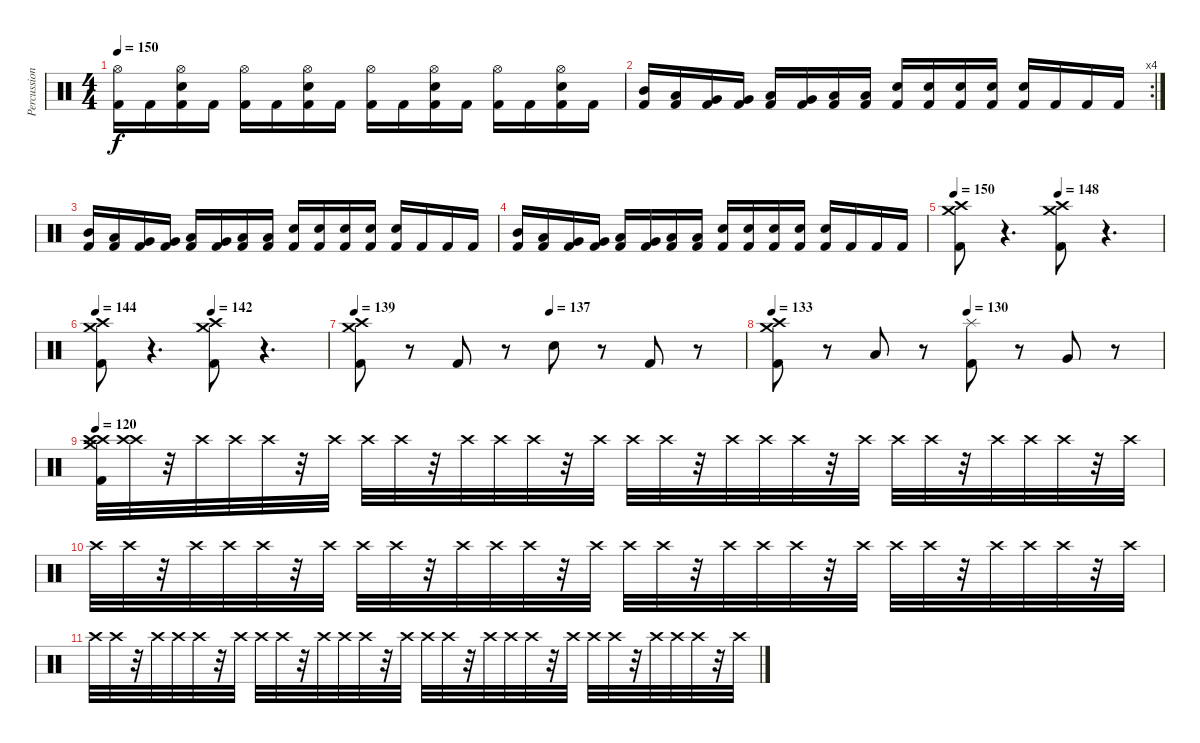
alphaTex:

\track ("Percussion" "Percussion") {instrument percussion}
\staff {score}
\articulation defaults
\ts (4 4)
\tempo 150
\clef neutral
\ks c
("Kick (hit) 2" "Hi-Hat (open)").16{dy f} "Kick (hit) 2".16 ("Kick (hit) 2" "Electric Snare (hit)" "Hi-Hat (open)").16 "Kick (hit) 2".16 ("Kick (hit) 2" "Hi-Hat (open)").16 "Kick (hit) 2".16 ("Kick (hit) 2" "Electric Snare (hit)" "Hi-Hat (open)").16 "Kick (hit) 2".16 ("Kick (hit) 2" "Hi-Hat (open)").16 "Kick (hit) 2".16 ("Kick (hit) 2" "Electric Snare (hit)" "Hi-Hat (open)").16 "Kick (hit) 2".16 ("Kick (hit) 2" "Hi-Hat (open)").16 "Kick (hit) 2".16 ("Kick (hit) 2" "Electric Snare (hit)" "Hi-Hat (open)").16 "Kick (hit) 2".16 |
\rc 4
("Kick (hit) 2" "Mid Tom (hit)").16 ("Kick (hit) 2" "Low Tom (hit)").16 ("Kick (hit) 2" "Very Low Tom (hit)").16 ("Kick (hit) 2" "Very Low Tom (hit)").16 ("Kick (hit) 2" "Low Tom (hit)").16 ("Kick (hit) 2" "Very Low Tom (hit)").16 ("Kick (hit) 2" "Low Floor Tom (hit)").16 ("Kick (hit) 2" "Low Floor Tom (hit)").16 ("Kick (hit) 2" "Electric Snare (hit)").16 ("Kick (hit) 2" "Electric Snare (hit)").16 ("Kick (hit) 2" "Electric Snare (hit)").16 ("Kick (hit) 2" "Electric Snare (hit)").16 ("Kick (hit) 2" "Electric Snare (hit)").16 "Kick (hit) 2".16 "Kick (hit) 2".16 "Kick (hit) 2".16 |
("Kick (hit) 2" "Mid Tom (hit)").16 ("Kick (hit) 2" "Low Tom (hit)").16 ("Kick (hit) 2" "Very Low Tom (hit)").16 ("Kick (hit) 2" "Very Low Tom (hit)").16 ("Kick (hit) 2" "Low Tom (hit)").16 ("Kick (hit) 2" "Very Low Tom (hit)").16 ("Kick (hit) 2" "Low Floor Tom (hit)").16 ("Kick (hit) 2" "Low Floor Tom (hit)").16 ("Kick (hit) 2" "Electric Snare (hit)").16 ("Kick (hit) 2" "Electric Snare (hit)").16 ("Kick (hit) 2" "Electric Snare (hit)").16 ("Kick (hit) 2" "Electric Snare (hit)").16 ("Kick (hit) 2" "Electric Snare (hit)").16 "Kick (hit) 2".16 "Kick (hit) 2".16 "Kick (hit) 2".16 |
("Kick (hit) 2" "Mid Tom (hit)").16 ("Kick (hit) 2" "Low Tom (hit)").16 ("Kick (hit) 2" "Very Low Tom (hit)").16 ("Kick (hit) 2" "Very Low Tom (hit)").16 ("Kick (hit) 2" "Low Tom (hit)").16 ("Kick (hit) 2" "Very Low Tom (hit)").16 ("Kick (hit) 2" "Low Floor Tom (hit)").16 ("Kick (hit) 2" "Low Floor Tom (hit)").16 ("Kick (hit) 2" "Electric Snare (hit)").16 ("Kick (hit) 2" "Electric Snare (hit)").16 ("Kick (hit) 2" "Electric Snare (hit)").16 ("Kick (hit) 2" "Electric Snare (hit)").16 ("Kick (hit) 2" "Electric Snare (hit)").16 "Kick (hit) 2".16 "Kick (hit) 2".16 "Kick (hit) 2".16 |
\tempo 150
\tempo (148 0.5)
("Kick (hit) 2" "Crash high (hit)" "Crash medium (hit)").8 r.4{d} ("Kick (hit) 2" "Crash high (hit)" "Crash medium (hit)").8 r.4{d} |
\tempo 144
\tempo (142 0.5)
("Kick (hit) 2" "Crash high (hit)" "Crash medium (hit)").8 r.4{d} ("Kick (hit) 2" "Crash high (hit)" "Crash medium (hit)").8 r.4{d} |
\tempo 139
\tempo (137 0.5)
("Kick (hit) 2" "Crash high (hit)" "Crash medium (hit)").8 r.8 "Kick (hit) 2".8 r.8 "Electric Snare (hit)".8 r.8 "Kick (hit) 2".8 r.8 |
\tempo 133
\tempo (130 0.5)
("Kick (hit) 2" "Crash high (hit)" "Crash medium (hit)").8 r.8 "Low Tom (hit)".8 r.8 ("Kick (hit) 2" "Splash (hit)").8 r.8 "Very Low Tom (hit)".8 r.8 |
\tempo 120
("Crash high (hit)" "Crash medium (hit)" "Crash high (hit)" "Kick (hit) 2").32{volume 13} ("Crash high (hit)" "Crash high (hit)").32 r.32 "Crash high (hit)".32 "Crash high (hit)".32 "Crash high (hit)".32{volume 12} r.32 "Crash high (hit)".32 "Crash high (hit)".32 "Crash high (hit)".32 r.32 "Crash high (hit)".32 "Crash high (hit)".32{volume 11} "Crash high (hit)".32 r.32 "Crash high (hit)".32 "Crash high (hit)".32 "Crash high (hit)".32 r.32 "Crash high (hit)".32{volume 10} "Crash high (hit)".32 "Crash high (hit)".32 r.32 "Crash high (hit)".32 "Crash high (hit)".32 "Crash high (hit)".32{volume 9} r.32 "Crash high (hit)".32 "Crash high (hit)".32 "Crash high (hit)".32 r.32 "Crash high (hit)".32 |
"Crash high (hit)".32{volume 8} "Crash high (hit)".32 r.32 "Crash high (hit)".32 "Crash high (hit)".32 "Crash high (hit)".32 r.32 "Crash high (hit)".32 "Crash high (hit)".32{volume 7} "Crash high (hit)".32 r.32 "Crash high (hit)".32 "Crash high (hit)".32 "Crash high (hit)".32 r.32 "Crash high (hit)".32 "Crash high (hit)".32{volume 6} "Crash high (hit)".32 r.32 "Crash high (hit)".32 "Crash high (hit)".32 "Crash high (hit)".32 r.32 "Crash high (hit)".32 "Crash high (hit)".32{volume 5} "Crash high (hit)".32 r.32 "Crash high (hit)".32 "Crash high (hit)".32 "Crash high (hit)".32 r.32 "Crash high (hit)".32 |
"Crash high (hit)".32{volume 4} "Crash high (hit)".32 r.32 "Crash high (hit)".32 "Crash high (hit)".32 "Crash high (hit)".32 r.32 "Crash high (hit)".32 "Crash high (hit)".32{volume 3} "Crash high (hit)".32 r.32 "Crash high (hit)".32 "Crash high (hit)".32 "Crash high (hit)".32 r.32 "Crash high (hit)".32 "Crash high (hit)".32{volume 2} "Crash high (hit)".32 r.32 "Crash high (hit)".32 "Crash high (hit)".32 "Crash high (hit)".32 r.32 "Crash high (hit)".32 "Crash high (hit)".32{volume 1} "Crash high (hit)".32 r.32 "Crash high (hit)".32 "Crash high (hit)".32 "Crash high (hit)".32 r.32 "Crash high (hit)".32
